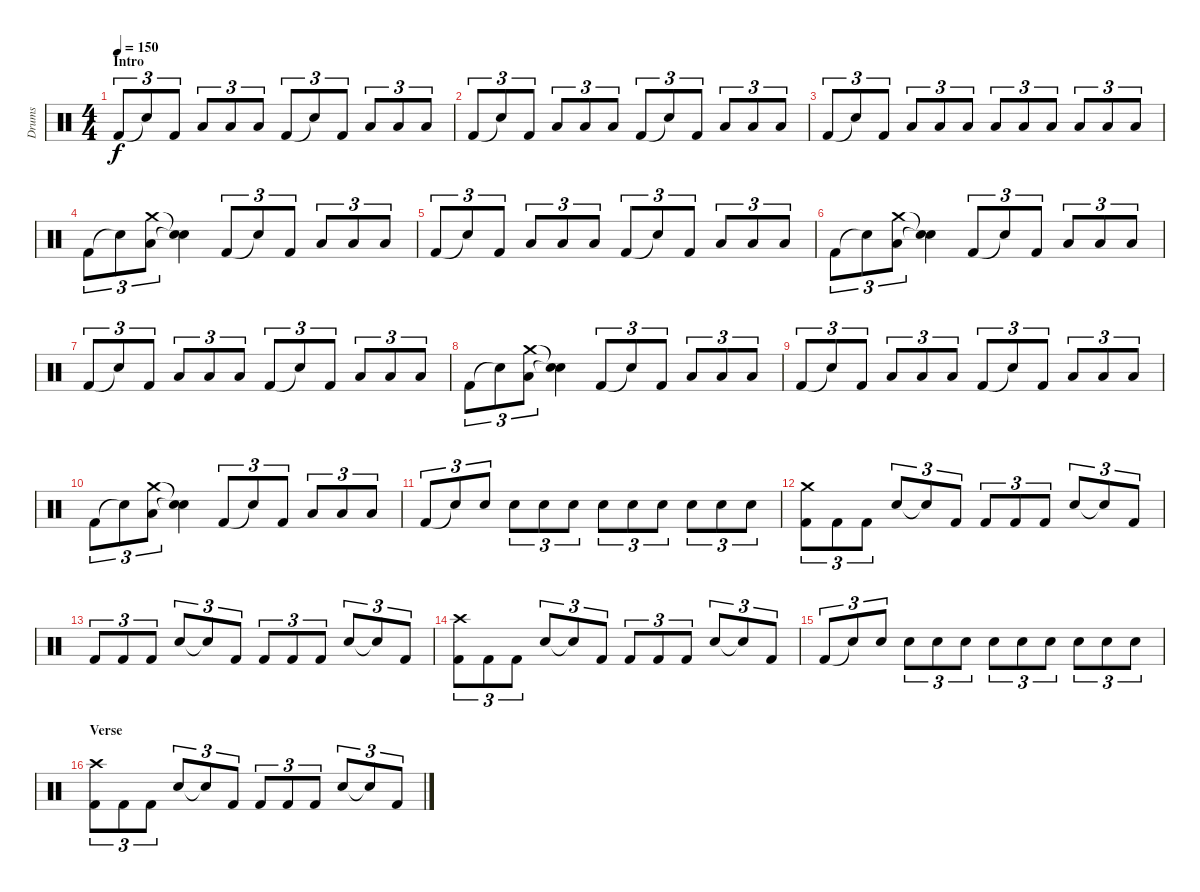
\track ("Drums" "Drums") {instrument percussion}
\staff {score}
\articulation defaults
\ts (4 4)
\section ("" "Intro")
\tempo 150
\clef neutral
\ks c "Kick (hit) 2".8{tu (3 2) dy f} "Snare (hit)"{t}.8{tu (3 2)} "Kick (hit) 2".8{tu (3 2)} "Low Tom (hit)".8{tu (3 2)} "Low Tom (hit)".8{tu (3 2)} "Low Tom (hit)".8{tu (3 2)} "Kick (hit) 2".8{tu (3 2)} "Snare (hit)"{t}.8{tu (3 2)} "Kick (hit) 2".8{tu (3 2)} "Low Tom (hit)".8{tu (3 2)} "Low Tom (hit)".8{tu (3 2)} "Low Tom (hit)".8{tu (3 2)}
|
"Kick (hit) 2".8{tu (3 2)} "Snare (hit)"{t}.8{tu (3 2)} "Kick (hit) 2".8{tu (3 2)} "Low Tom (hit)".8{tu (3 2)} "Low Tom (hit)".8{tu (3 2)} "Low Tom (hit)".8{tu (3 2)} "Kick (hit) 2".8{tu (3 2)} "Snare (hit)"{t}.8{tu (3 2)} "Kick (hit) 2".8{tu (3 2)} "Low Tom (hit)".8{tu (3 2)} "Low Tom (hit)".8{tu (3 2)} "Low Tom (hit)".8{tu (3 2)} |
"Kick (hit) 2".8{tu (3 2)} "Snare (hit)"{t}.8{tu (3 2)} "Kick (hit) 2".8{tu (3 2)} "Low Tom (hit)".8{tu (3 2)} "Low Tom (hit)".8{tu (3 2)} "Low Tom (hit)".8{tu (3 2)} "Low Tom (hit)".8{tu (3 2)} "Low Tom (hit)".8{tu (3 2)} "Low Tom (hit)".8{tu (3 2)} "Low Tom (hit)".8{tu (3 2)} "Low Tom (hit)".8{tu (3 2)} "Low Tom (hit)".8{tu (3 2)} |
"Kick (hit) 2".8{tu (3 2)} "Snare (hit)"{t}.8{tu (3 2)} ("Crash medium (hit)" "Low Tom (hit)").8{tu (3 2)} ("Snare (hit)"{t} "Snare (hit)"{t}).4 "Kick (hit) 2".8{tu (3 2)} "Snare (hit)"{t}.8{tu (3 2)} "Kick (hit) 2".8{tu (3 2)} "Low Tom (hit)".8{tu (3 2)} "Low Tom (hit)".8{tu (3 2)} "Low Tom (hit)".8{tu (3 2)} |
"Kick (hit) 2".8{tu (3 2)} "Snare (hit)"{t}.8{tu (3 2)} "Kick (hit) 2".8{tu (3 2)} "Low Tom (hit)".8{tu (3 2)} "Low Tom (hit)".8{tu (3 2)} "Low Tom (hit)".8{tu (3 2)} "Kick (hit) 2".8{tu (3 2)} "Snare (hit)"{t}.8{tu (3 2)} "Kick (hit) 2".8{tu (3 2)} "Low Tom (hit)".8{tu (3 2)} "Low Tom (hit)".8{tu (3 2)} "Low Tom (hit)".8{tu (3 2)} |
"Kick (hit) 2".8{tu (3 2)} "Snare (hit)"{t}.8{tu (3 2)} ("Crash medium (hit)" "Low Tom (hit)").8{tu (3 2)} ("Snare (hit)"{t} "Snare (hit)"{t}).4 "Kick (hit) 2".8{tu (3 2)} "Snare (hit)"{t}.8{tu (3 2)} "Kick (hit) 2".8{tu (3 2)} "Low Tom (hit)".8{tu (3 2)} "Low Tom (hit)".8{tu (3 2)} "Low Tom (hit)".8{tu (3 2)} |
"Kick (hit) 2".8{tu (3 2)} "Snare (hit)"{t}.8{tu (3 2)} "Kick (hit) 2".8{tu (3 2)} "Low Tom (hit)".8{tu (3 2)} "Low Tom (hit)".8{tu (3 2)} "Low Tom (hit)".8{tu (3 2)} "Kick (hit) 2".8{tu (3 2)} "Snare (hit)"{t}.8{tu (3 2)} "Kick (hit) 2".8{tu (3 2)} "Low Tom (hit)".8{tu (3 2)} "Low Tom (hit)".8{tu (3 2)} "Low Tom (hit)".8{tu (3 2)} |
"Kick (hit) 2".8{tu (3 2)} "Snare (hit)"{t}.8{tu (3 2)} ("Crash medium (hit)" "Low Tom (hit)").8{tu (3 2)} ("Snare (hit)"{t} "Snare (hit)"{t}).4 "Kick (hit) 2".8{tu (3 2)} "Snare (hit)"{t}.8{tu (3 2)} "Kick (hit) 2".8{tu (3 2)} "Low Tom (hit)".8{tu (3 2)} "Low Tom (hit)".8{tu (3 2)} "Low Tom (hit)".8{tu (3 2)} |
"Kick (hit) 2".8{tu (3 2)} "Snare (hit)"{t}.8{tu (3 2)} "Kick (hit) 2".8{tu (3 2)} "Low Tom (hit)".8{tu (3 2)} "Low Tom (hit)".8{tu (3 2)} "Low Tom (hit)".8{tu (3 2)} "Kick (hit) 2".8{tu (3 2)} "Snare (hit)"{t}.8{tu (3 2)} "Kick (hit) 2".8{tu (3 2)} "Low Tom (hit)".8{tu (3 2)} "Low Tom (hit)".8{tu (3 2)} "Low Tom (hit)".8{tu (3 2)} |
"Kick (hit) 2".8{tu (3 2)} "Snare (hit)"{t}.8{tu (3 2)} ("Crash medium (hit)" "Low Tom (hit)").8{tu (3 2)} ("Snare (hit)"{t} "Snare (hit)"{t}).4 "Kick (hit) 2".8{tu (3 2)} "Snare (hit)"{t}.8{tu (3 2)} "Kick (hit) 2".8{tu (3 2)} "Low Tom (hit)".8{tu (3 2)} "Low Tom (hit)".8{tu (3 2)} "Low Tom (hit)".8{tu (3 2)} |
"Kick (hit) 2".8{tu (3 2)} "Snare (hit)"{t}.8{tu (3 2)} "Electric Snare (hit)".8{tu (3 2)} "Electric Snare (hit)".8{tu (3 2)} "Electric Snare (hit)".8{tu (3 2)} "Electric Snare (hit)".8{tu (3 2)} "Electric Snare (hit)".8{tu (3 2)} "Electric Snare (hit)".8{tu (3 2)} "Electric Snare (hit)".8{tu (3 2)} "Electric Snare (hit)".8{tu (3 2)} "Electric Snare (hit)".8{tu (3 2)} "Electric Snare (hit)".8{tu (3 2)} |
("Crash medium (hit)" "Kick (hit) 2").8{tu (3 2)} "Kick (hit) 2".8{tu (3 2)} "Kick (hit) 2".8{tu (3 2)} "Electric Snare (hit)".8{tu (3 2)} "Snare (hit)"{t}.8{tu (3 2)} "Kick (hit) 2".8{tu (3 2)} "Kick (hit) 2".8{tu (3 2)} "Kick (hit) 2".8{tu (3 2)} "Kick (hit) 2".8{tu (3 2)} "Electric Snare (hit)".8{tu (3 2)} "Snare (hit)"{t}.8{tu (3 2)} "Kick (hit) 2".8{tu (3 2)} |
"Kick (hit) 2".8{tu (3 2)} "Kick (hit) 2".8{tu (3 2)} "Kick (hit) 2".8{tu (3 2)} "Electric Snare (hit)".8{tu (3 2)} "Snare (hit)"{t}.8{tu (3 2)} "Kick (hit) 2".8{tu (3 2)} "Kick (hit) 2".8{tu (3 2)} "Kick (hit) 2".8{tu (3 2)} "Kick (hit) 2".8{tu (3 2)} "Electric Snare (hit)".8{tu (3 2)} "Snare (hit)"{t}.8{tu (3 2)} "Kick (hit) 2".8{tu (3 2)} |
("Crash high (hit)" "Kick (hit) 2").8{tu (3 2)} "Kick (hit) 2".8{tu (3 2)} "Kick (hit) 2".8{tu (3 2)} "Electric Snare (hit)".8{tu (3 2)} "Snare (hit)"{t}.8{tu (3 2)} "Kick (hit) 2".8{tu (3 2)} "Kick (hit) 2".8{tu (3 2)} "Kick (hit) 2".8{tu (3 2)} "Kick (hit) 2".8{tu (3 2)} "Electric Snare (hit)".8{tu (3 2)} "Snare (hit)"{t}.8{tu (3 2)} "Kick (hit) 2".8{tu (3 2)} |
"Kick (hit) 2".8{tu (3 2)} "Snare (hit)"{t}.8{tu (3 2)} "Electric Snare (hit)".8{tu (3 2)} "Electric Snare (hit)".8{tu (3 2)} "Electric Snare (hit)".8{tu (3 2)} "Electric Snare (hit)".8{tu (3 2)} "Electric Snare (hit)".8{tu (3 2)} "Electric Snare (hit)".8{tu (3 2)} "Electric Snare (hit)".8{tu (3 2)} "Electric Snare (hit)".8{tu (3 2)} "Electric Snare (hit)".8{tu (3 2)} "Electric Snare (hit)".8{tu (3 2)} |
\section ("" "Verse")
("Crash high (hit)" "Kick (hit) 2").8{tu (3 2)} "Kick (hit) 2".8{tu (3 2)} "Kick (hit) 2".8{tu (3 2)} "Electric Snare (hit)".8{tu (3 2)} "Snare (hit)"{t}.8{tu (3 2)} "Kick (hit) 2".8{tu (3 2)} "Kick (hit) 2".8{tu (3 2)} "Kick (hit) 2".8{tu (3 2)} "Kick (hit) 2".8{tu (3 2)} "Electric Snare (hit)".8{tu (3 2)} "Snare (hit)"{t}.8{tu (3 2)} "Kick (hit) 2".8{tu (3 2)}
